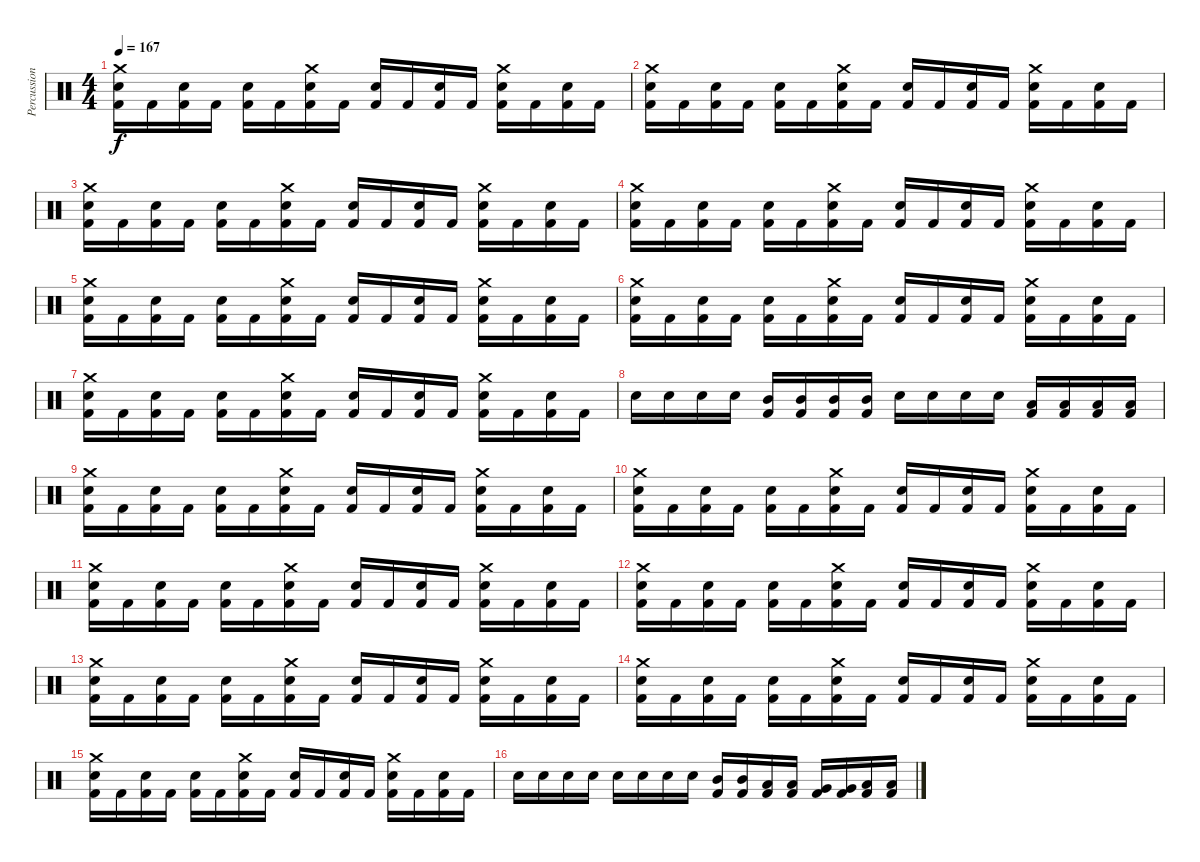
\track ("Percussion" "Percussion") {instrument percussion}
\staff {score}
\articulation defaults
\ts (4 4)
\tempo 167
\clef neutral
\ks c
("Crash medium (hit)" "Snare (hit) 2" "Kick (hit) 2").16{dy f} "Kick (hit) 2".16 ("Snare (hit) 2" "Kick (hit) 2").16 "Kick (hit) 2".16 ("Snare (hit) 2" "Kick (hit) 2").16 "Kick (hit) 2".16 ("Crash medium (hit)" "Snare (hit) 2" "Kick (hit) 2").16 "Kick (hit) 2".16 ("Snare (hit) 2" "Kick (hit) 2").16 "Kick (hit) 2".16 ("Snare (hit) 2" "Kick (hit) 2").16 "Kick (hit) 2".16 ("Crash medium (hit)" "Snare (hit) 2" "Kick (hit) 2").16 "Kick (hit) 2".16 ("Snare (hit) 2" "Kick (hit) 2").16 "Kick (hit) 2".16 |
("Crash medium (hit)" "Snare (hit) 2" "Kick (hit) 2").16 "Kick (hit) 2".16 ("Snare (hit) 2" "Kick (hit) 2").16 "Kick (hit) 2".16 ("Snare (hit) 2" "Kick (hit) 2").16 "Kick (hit) 2".16 ("Crash medium (hit)" "Snare (hit) 2" "Kick (hit) 2").16 "Kick (hit) 2".16 ("Snare (hit) 2" "Kick (hit) 2").16 "Kick (hit) 2".16 ("Snare (hit) 2" "Kick (hit) 2").16 "Kick (hit) 2".16 ("Crash medium (hit)" "Snare (hit) 2" "Kick (hit) 2").16 "Kick (hit) 2".16 ("Snare (hit) 2" "Kick (hit) 2").16 "Kick (hit) 2".16 |
("Crash medium (hit)" "Snare (hit) 2" "Kick (hit) 2").16 "Kick (hit) 2".16 ("Snare (hit) 2" "Kick (hit) 2").16 "Kick (hit) 2".16 ("Snare (hit) 2" "Kick (hit) 2").16 "Kick (hit) 2".16 ("Crash medium (hit)" "Snare (hit) 2" "Kick (hit) 2").16 "Kick (hit) 2".16 ("Snare (hit) 2" "Kick (hit) 2").16 "Kick (hit) 2".16 ("Snare (hit) 2" "Kick (hit) 2").16 "Kick (hit) 2".16 ("Crash medium (hit)" "Snare (hit) 2" "Kick (hit) 2").16 "Kick (hit) 2".16 ("Snare (hit) 2" "Kick (hit) 2").16 "Kick (hit) 2".16 |
("Crash medium (hit)" "Snare (hit) 2" "Kick (hit) 2").16 "Kick (hit) 2".16 ("Snare (hit) 2" "Kick (hit) 2").16 "Kick (hit) 2".16 ("Snare (hit) 2" "Kick (hit) 2").16 "Kick (hit) 2".16 ("Crash medium (hit)" "Snare (hit) 2" "Kick (hit) 2").16 "Kick (hit) 2".16 ("Snare (hit) 2" "Kick (hit) 2").16 "Kick (hit) 2".16 ("Snare (hit) 2" "Kick (hit) 2").16 "Kick (hit) 2".16 ("Crash medium (hit)" "Snare (hit) 2" "Kick (hit) 2").16 "Kick (hit) 2".16 ("Snare (hit) 2" "Kick (hit) 2").16 "Kick (hit) 2".16 |
("Crash medium (hit)" "Snare (hit) 2" "Kick (hit) 2").16 "Kick (hit) 2".16 ("Snare (hit) 2" "Kick (hit) 2").16 "Kick (hit) 2".16 ("Snare (hit) 2" "Kick (hit) 2").16 "Kick (hit) 2".16 ("Crash medium (hit)" "Snare (hit) 2" "Kick (hit) 2").16 "Kick (hit) 2".16 ("Snare (hit) 2" "Kick (hit) 2").16 "Kick (hit) 2".16 ("Snare (hit) 2" "Kick (hit) 2").16 "Kick (hit) 2".16 ("Crash medium (hit)" "Snare (hit) 2" "Kick (hit) 2").16 "Kick (hit) 2".16 ("Snare (hit) 2" "Kick (hit) 2").16 "Kick (hit) 2".16 |
("Crash medium (hit)" "Snare (hit) 2" "Kick (hit) 2").16 "Kick (hit) 2".16 ("Snare (hit) 2" "Kick (hit) 2").16 "Kick (hit) 2".16 ("Snare (hit) 2" "Kick (hit) 2").16 "Kick (hit) 2".16 ("Crash medium (hit)" "Snare (hit) 2" "Kick (hit) 2").16 "Kick (hit) 2".16 ("Snare (hit) 2" "Kick (hit) 2").16 "Kick (hit) 2".16 ("Snare (hit) 2" "Kick (hit) 2").16 "Kick (hit) 2".16 ("Crash medium (hit)" "Snare (hit) 2" "Kick (hit) 2").16 "Kick (hit) 2".16 ("Snare (hit) 2" "Kick (hit) 2").16 "Kick (hit) 2".16 |
("Crash medium (hit)" "Snare (hit) 2" "Kick (hit) 2").16 "Kick (hit) 2".16 ("Snare (hit) 2" "Kick (hit) 2").16 "Kick (hit) 2".16 ("Snare (hit) 2" "Kick (hit) 2").16 "Kick (hit) 2".16 ("Crash medium (hit)" "Snare (hit) 2" "Kick (hit) 2").16 "Kick (hit) 2".16 ("Snare (hit) 2" "Kick (hit) 2").16 "Kick (hit) 2".16 ("Snare (hit) 2" "Kick (hit) 2").16 "Kick (hit) 2".16 ("Crash medium (hit)" "Snare (hit) 2" "Kick (hit) 2").16 "Kick (hit) 2".16 ("Snare (hit) 2" "Kick (hit) 2").16 "Kick (hit) 2".16 |
"Snare (hit) 2".16 "Snare (hit) 2".16 "Snare (hit) 2".16 "Snare (hit) 2".16 ("Mid Tom (hit)" "Kick (hit) 2").16 ("Mid Tom (hit)" "Kick (hit) 2").16 ("Mid Tom (hit)" "Kick (hit) 2").16 ("Mid Tom (hit)" "Kick (hit) 2").16 "Snare (hit) 2".16 "Snare (hit) 2".16 "Snare (hit) 2".16 "Snare (hit) 2".16 ("Low Tom (hit)" "Kick (hit) 2").16 ("Low Tom (hit)" "Kick (hit) 2").16 ("Low Tom (hit)" "Kick (hit) 2").16 ("Low Tom (hit)" "Kick (hit) 2").16 |
("Crash medium (hit)" "Snare (hit) 2" "Kick (hit) 2").16 "Kick (hit) 2".16 ("Snare (hit) 2" "Kick (hit) 2").16 "Kick (hit) 2".16 ("Snare (hit) 2" "Kick (hit) 2").16 "Kick (hit) 2".16 ("Crash medium (hit)" "Snare (hit) 2" "Kick (hit) 2").16 "Kick (hit) 2".16 ("Snare (hit) 2" "Kick (hit) 2").16 "Kick (hit) 2".16 ("Snare (hit) 2" "Kick (hit) 2").16 "Kick (hit) 2".16 ("Crash medium (hit)" "Snare (hit) 2" "Kick (hit) 2").16 "Kick (hit) 2".16 ("Snare (hit) 2" "Kick (hit) 2").16 "Kick (hit) 2".16 |
("Crash medium (hit)" "Snare (hit) 2" "Kick (hit) 2").16 "Kick (hit) 2".16 ("Snare (hit) 2" "Kick (hit) 2").16 "Kick (hit) 2".16 ("Snare (hit) 2" "Kick (hit) 2").16 "Kick (hit) 2".16 ("Crash medium (hit)" "Snare (hit) 2" "Kick (hit) 2").16 "Kick (hit) 2".16 ("Snare (hit) 2" "Kick (hit) 2").16 "Kick (hit) 2".16 ("Snare (hit) 2" "Kick (hit) 2").16 "Kick (hit) 2".16 ("Crash medium (hit)" "Snare (hit) 2" "Kick (hit) 2").16 "Kick (hit) 2".16 ("Snare (hit) 2" "Kick (hit) 2").16 "Kick (hit) 2".16 |
("Crash medium (hit)" "Snare (hit) 2" "Kick (hit) 2").16 "Kick (hit) 2".16 ("Snare (hit) 2" "Kick (hit) 2").16 "Kick (hit) 2".16 ("Snare (hit) 2" "Kick (hit) 2").16 "Kick (hit) 2".16 ("Crash medium (hit)" "Snare (hit) 2" "Kick (hit) 2").16 "Kick (hit) 2".16 ("Snare (hit) 2" "Kick (hit) 2").16 "Kick (hit) 2".16 ("Snare (hit) 2" "Kick (hit) 2").16 "Kick (hit) 2".16 ("Crash medium (hit)" "Snare (hit) 2" "Kick (hit) 2").16 "Kick (hit) 2".16 ("Snare (hit) 2" "Kick (hit) 2").16 "Kick (hit) 2".16 |
("Crash medium (hit)" "Snare (hit) 2" "Kick (hit) 2").16 "Kick (hit) 2".16 ("Snare (hit) 2" "Kick (hit) 2").16 "Kick (hit) 2".16 ("Snare (hit) 2" "Kick (hit) 2").16 "Kick (hit) 2".16 ("Crash medium (hit)" "Snare (hit) 2" "Kick (hit) 2").16 "Kick (hit) 2".16 ("Snare (hit) 2" "Kick (hit) 2").16 "Kick (hit) 2".16 ("Snare (hit) 2" "Kick (hit) 2").16 "Kick (hit) 2".16 ("Crash medium (hit)" "Snare (hit) 2" "Kick (hit) 2").16 "Kick (hit) 2".16 ("Snare (hit) 2" "Kick (hit) 2").16 "Kick (hit) 2".16 |
("Crash medium (hit)" "Snare (hit) 2" "Kick (hit) 2").16 "Kick (hit) 2".16 ("Snare (hit) 2" "Kick (hit) 2").16 "Kick (hit) 2".16 ("Snare (hit) 2" "Kick (hit) 2").16 "Kick (hit) 2".16 ("Crash medium (hit)" "Snare (hit) 2" "Kick (hit) 2").16 "Kick (hit) 2".16 ("Snare (hit) 2" "Kick (hit) 2").16 "Kick (hit) 2".16 ("Snare (hit) 2" "Kick (hit) 2").16 "Kick (hit) 2".16 ("Crash medium (hit)" "Snare (hit) 2" "Kick (hit) 2").16 "Kick (hit) 2".16 ("Snare (hit) 2" "Kick (hit) 2").16 "Kick (hit) 2".16 |
("Crash medium (hit)" "Snare (hit) 2" "Kick (hit) 2").16 "Kick (hit) 2".16 ("Snare (hit) 2" "Kick (hit) 2").16 "Kick (hit) 2".16 ("Snare (hit) 2" "Kick (hit) 2").16 "Kick (hit) 2".16 ("Crash medium (hit)" "Snare (hit) 2" "Kick (hit) 2").16 "Kick (hit) 2".16 ("Snare (hit) 2" "Kick (hit) 2").16 "Kick (hit) 2".16 ("Snare (hit) 2" "Kick (hit) 2").16 "Kick (hit) 2".16 ("Crash medium (hit)" "Snare (hit) 2" "Kick (hit) 2").16 "Kick (hit) 2".16 ("Snare (hit) 2" "Kick (hit) 2").16 "Kick (hit) 2".16 |
("Crash medium (hit)" "Snare (hit) 2" "Kick (hit) 2").16 "Kick (hit) 2".16 ("Snare (hit) 2" "Kick (hit) 2").16 "Kick (hit) 2".16 ("Snare (hit) 2" "Kick (hit) 2").16 "Kick (hit) 2".16 ("Crash medium (hit)" "Snare (hit) 2" "Kick (hit) 2").16 "Kick (hit) 2".16 ("Snare (hit) 2" "Kick (hit) 2").16 "Kick (hit) 2".16 ("Snare (hit) 2" "Kick (hit) 2").16 "Kick (hit) 2".16 ("Crash medium (hit)" "Snare (hit) 2" "Kick (hit) 2").16 "Kick (hit) 2".16 ("Snare (hit) 2" "Kick (hit) 2").16 "Kick (hit) 2".16 |
"Snare (hit) 2".16 "Snare (hit) 2".16 "Snare (hit) 2".16 "Snare (hit) 2".16 "Snare (hit) 2".16 "Snare (hit) 2".16 "Snare (hit) 2".16 "Snare (hit) 2".16 ("Mid Tom (hit)" "Kick (hit) 2").16 ("Mid Tom (hit)" "Kick (hit) 2").16 ("Low Tom (hit)" "Kick (hit) 2").16 ("Low Tom (hit)" "Kick (hit) 2").16 ("Very Low Tom (hit)" "Kick (hit) 2").16 ("Very Low Tom (hit)" "Kick (hit) 2").16 ("Low Floor Tom (hit)" "Kick (hit) 2").16 ("Low Floor Tom (hit)" "Kick (hit) 2").16
